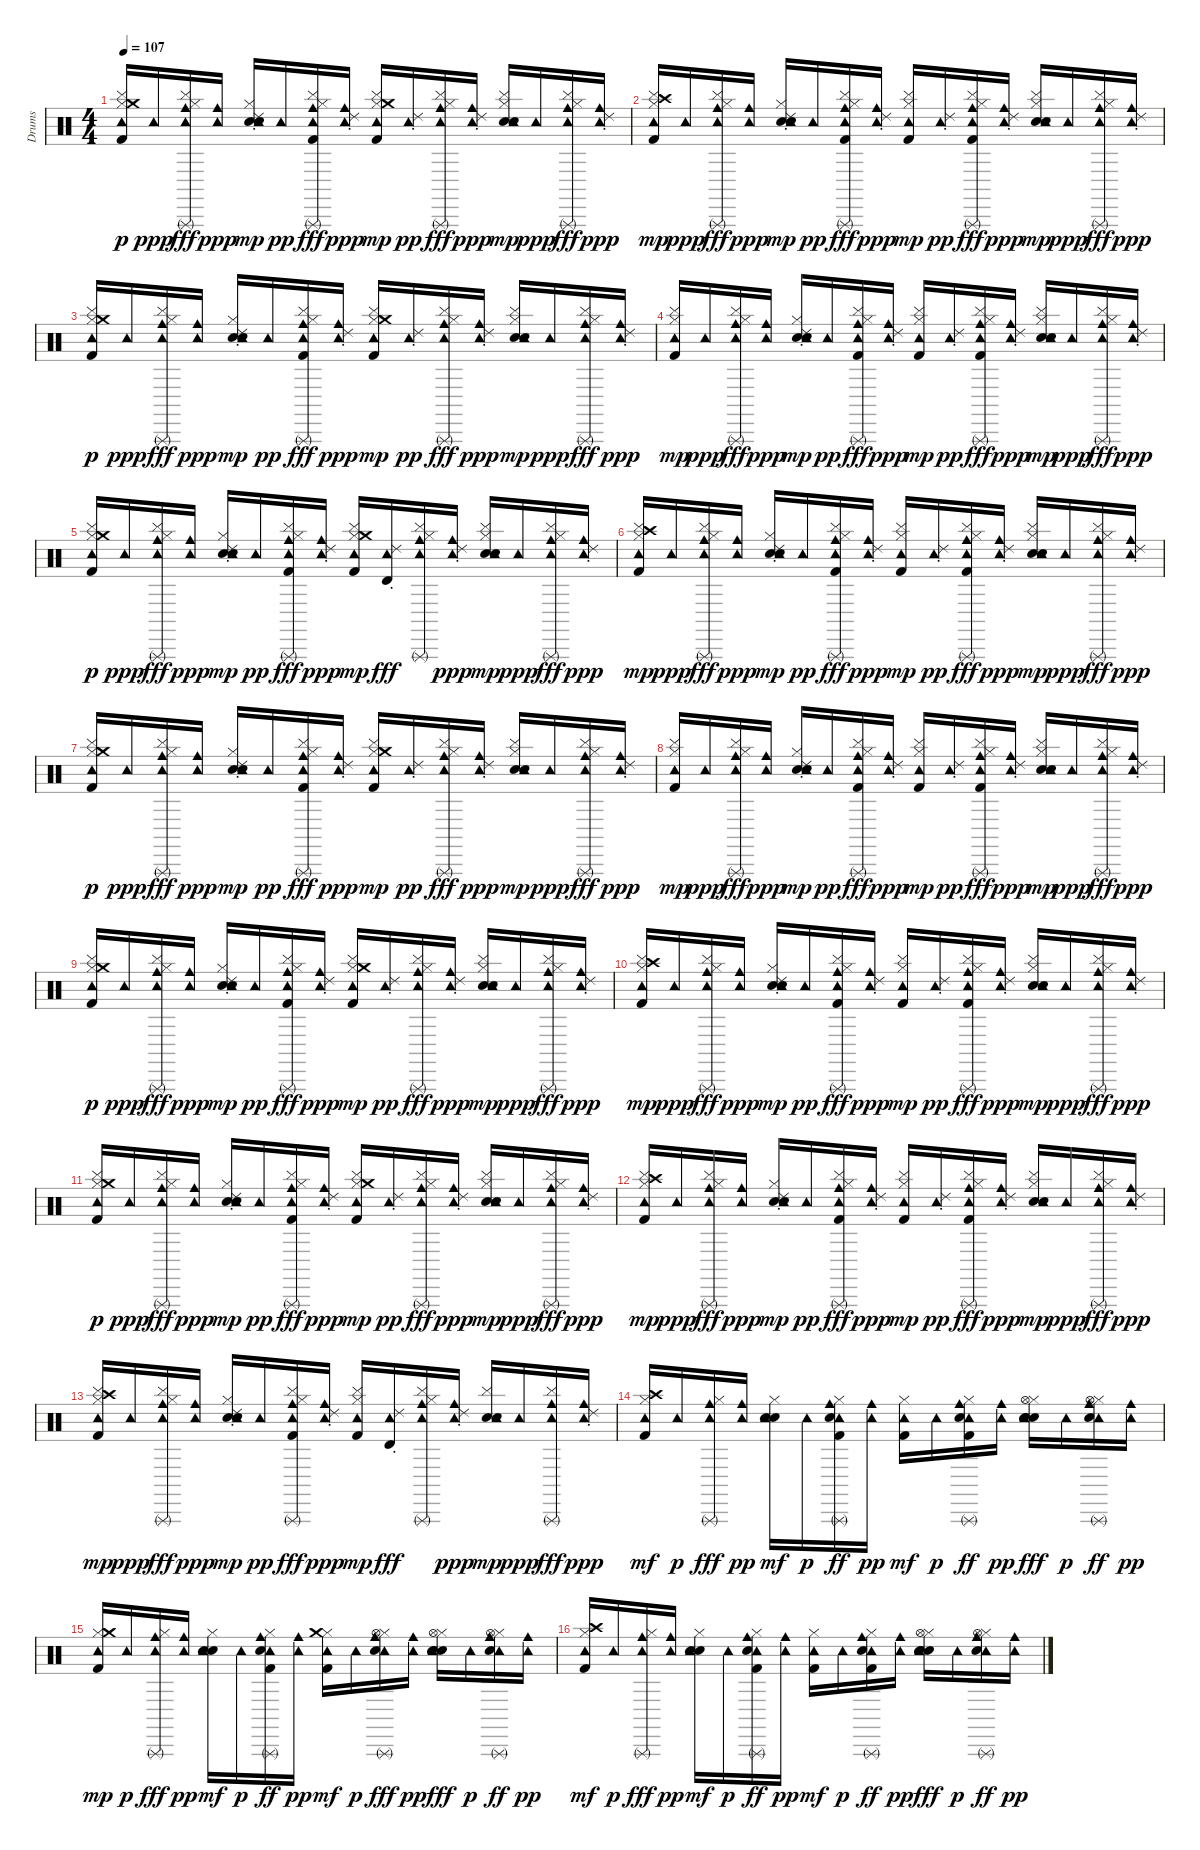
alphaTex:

\track ("Drums" "Drums") {instrument percussion}
\staff {score}
\articulation defaults
\ts (4 4)
\tempo 107
\clef neutral
\ks c
("Cymbal (hit)" "Kick (hit) 2" "Hi-Hat (closed)" "Tambourine (hit)" "Crash medium (hit)").16{dy p} "Tambourine (hit)".16{dy ppp} ("Cymbal (hit)" "Hi-Hat (closed)" "Tambourine (hit)" "Cowbell medium (hit)" "Triangle (rnute)").16{dy fff} ("Tambourine (hit)" "Cowbell medium (hit)").16{dy ppp} ("Ride (choke) 2" "Hand Clap (hit)" "Electric Snare (hit)" "Hi-Hat (closed)" "Tambourine (hit)").16{dy mp} "Tambourine (hit)".16{dy pp} ("Cymbal (hit)" "Kick (hit) 2" "Hi-Hat (closed)" "Tambourine (hit)" "Cowbell medium (hit)" "Triangle (rnute)").16{dy fff} ("Ride (choke) 2" "Tambourine (hit)" "Cowbell medium (hit)").16{dy ppp} ("Cymbal (hit)" "Kick (hit) 2" "Hi-Hat (closed)" "Tambourine (hit)" "Crash medium (hit)").16{dy mp} ("Ride (choke) 2" "Tambourine (hit)").16{dy pp} ("Cymbal (hit)" "Hi-Hat (closed)" "Tambourine (hit)" "Cowbell medium (hit)" "Triangle (rnute)").16{dy fff} ("Ride (choke) 2" "Tambourine (hit)" "Cowbell medium (hit)").16{dy ppp} ("Cymbal (hit)" "Hand Clap (hit)" "Electric Snare (hit)" "Hi-Hat (closed)" "Tambourine (hit)").16{dy mp} "Tambourine (hit)".16{dy ppp} ("Cymbal (hit)" "Hi-Hat (closed)" "Tambourine (hit)" "Cowbell medium (hit)" "Triangle (rnute)").16{dy fff} ("Ride (choke) 2" "Tambourine (hit)" "Cowbell medium (hit)").16{dy ppp} |
("Cymbal (hit)" "Kick (hit) 2" "Hi-Hat (closed)" "Crash high (hit)" "Tambourine (hit)").16{dy mp} "Tambourine (hit)".16{dy ppp} ("Cymbal (hit)" "Hi-Hat (closed)" "Tambourine (hit)" "Cowbell medium (hit)" "Triangle (rnute)").16{dy fff} ("Tambourine (hit)" "Cowbell medium (hit)").16{dy ppp} ("Ride (choke) 2" "Hand Clap (hit)" "Electric Snare (hit)" "Hi-Hat (closed)" "Tambourine (hit)").16{dy mp} "Tambourine (hit)".16{dy pp} ("Cymbal (hit)" "Kick (hit) 2" "Hi-Hat (closed)" "Tambourine (hit)" "Cowbell medium (hit)" "Triangle (rnute)").16{dy fff} ("Ride (choke) 2" "Tambourine (hit)" "Cowbell medium (hit)").16{dy ppp} ("Cymbal (hit)" "Kick (hit) 2" "Hi-Hat (closed)" "Tambourine (hit)").16{dy mp} ("Ride (choke) 2" "Tambourine (hit)").16{dy pp} ("Cymbal (hit)" "Kick (hit) 2" "Hi-Hat (closed)" "Tambourine (hit)" "Cowbell medium (hit)" "Triangle (rnute)").16{dy fff} ("Ride (choke) 2" "Tambourine (hit)" "Cowbell medium (hit)").16{dy ppp} ("Cymbal (hit)" "Hand Clap (hit)" "Electric Snare (hit)" "Hi-Hat (closed)" "Tambourine (hit)").16{dy mp} "Tambourine (hit)".16{dy ppp} ("Cymbal (hit)" "Hi-Hat (closed)" "Tambourine (hit)" "Cowbell medium (hit)" "Triangle (rnute)").16{dy fff} ("Ride (choke) 2" "Tambourine (hit)" "Cowbell medium (hit)").16{dy ppp} |
("Cymbal (hit)" "Kick (hit) 2" "Hi-Hat (closed)" "Tambourine (hit)" "Crash medium (hit)").16{dy p} "Tambourine (hit)".16{dy ppp} ("Cymbal (hit)" "Hi-Hat (closed)" "Tambourine (hit)" "Cowbell medium (hit)" "Triangle (rnute)").16{dy fff} ("Tambourine (hit)" "Cowbell medium (hit)").16{dy ppp} ("Ride (choke) 2" "Hand Clap (hit)" "Electric Snare (hit)" "Hi-Hat (closed)" "Tambourine (hit)").16{dy mp} "Tambourine (hit)".16{dy pp} ("Cymbal (hit)" "Kick (hit) 2" "Hi-Hat (closed)" "Tambourine (hit)" "Cowbell medium (hit)" "Triangle (rnute)").16{dy fff} ("Ride (choke) 2" "Tambourine (hit)" "Cowbell medium (hit)").16{dy ppp} ("Cymbal (hit)" "Kick (hit) 2" "Hi-Hat (closed)" "Tambourine (hit)" "Crash medium (hit)").16{dy mp} ("Ride (choke) 2" "Tambourine (hit)").16{dy pp} ("Cymbal (hit)" "Hi-Hat (closed)" "Tambourine (hit)" "Cowbell medium (hit)" "Triangle (rnute)").16{dy fff} ("Ride (choke) 2" "Tambourine (hit)" "Cowbell medium (hit)").16{dy ppp} ("Cymbal (hit)" "Hand Clap (hit)" "Electric Snare (hit)" "Hi-Hat (closed)" "Tambourine (hit)").16{dy mp} "Tambourine (hit)".16{dy ppp} ("Cymbal (hit)" "Hi-Hat (closed)" "Tambourine (hit)" "Cowbell medium (hit)" "Triangle (rnute)").16{dy fff} ("Ride (choke) 2" "Tambourine (hit)" "Cowbell medium (hit)").16{dy ppp} |
("Cymbal (hit)" "Kick (hit) 2" "Hi-Hat (closed)" "Tambourine (hit)").16{dy mp} "Tambourine (hit)".16{dy ppp} ("Cymbal (hit)" "Hi-Hat (closed)" "Tambourine (hit)" "Cowbell medium (hit)" "Triangle (rnute)").16{dy fff} ("Tambourine (hit)" "Cowbell medium (hit)").16{dy ppp} ("Ride (choke) 2" "Hand Clap (hit)" "Electric Snare (hit)" "Hi-Hat (closed)" "Tambourine (hit)").16{dy mp} "Tambourine (hit)".16{dy pp} ("Cymbal (hit)" "Kick (hit) 2" "Hi-Hat (closed)" "Tambourine (hit)" "Cowbell medium (hit)" "Triangle (rnute)").16{dy fff} ("Ride (choke) 2" "Tambourine (hit)" "Cowbell medium (hit)").16{dy ppp} ("Cymbal (hit)" "Kick (hit) 2" "Hi-Hat (closed)" "Tambourine (hit)").16{dy mp} ("Ride (choke) 2" "Tambourine (hit)").16{dy pp} ("Cymbal (hit)" "Kick (hit) 2" "Hi-Hat (closed)" "Tambourine (hit)" "Cowbell medium (hit)" "Triangle (rnute)").16{dy fff} ("Ride (choke) 2" "Tambourine (hit)" "Cowbell medium (hit)").16{dy ppp} ("Cymbal (hit)" "Hand Clap (hit)" "Electric Snare (hit)" "Hi-Hat (closed)" "Tambourine (hit)").16{dy mp} "Tambourine (hit)".16{dy ppp} ("Cymbal (hit)" "Hi-Hat (closed)" "Tambourine (hit)" "Cowbell medium (hit)" "Triangle (rnute)").16{dy fff} ("Ride (choke) 2" "Tambourine (hit)" "Cowbell medium (hit)").16{dy ppp} |
("Cymbal (hit)" "Kick (hit) 2" "Hi-Hat (closed)" "Tambourine (hit)" "Crash medium (hit)").16{dy p} "Tambourine (hit)".16{dy ppp} ("Cymbal (hit)" "Hi-Hat (closed)" "Tambourine (hit)" "Cowbell medium (hit)" "Triangle (rnute)").16{dy fff} ("Tambourine (hit)" "Cowbell medium (hit)").16{dy ppp} ("Ride (choke) 2" "Hand Clap (hit)" "Electric Snare (hit)" "Hi-Hat (closed)" "Tambourine (hit)").16{dy mp} "Tambourine (hit)".16{dy pp} ("Cymbal (hit)" "Kick (hit) 2" "Hi-Hat (closed)" "Tambourine (hit)" "Cowbell medium (hit)" "Triangle (rnute)").16{dy fff} ("Ride (choke) 2" "Tambourine (hit)" "Cowbell medium (hit)").16{dy ppp} ("Cymbal (hit)" "Kick (hit) 2" "Hi-Hat (closed)" "Tambourine (hit)" "Crash medium (hit)").16{dy mp} ("Ride (choke) 2" "Tambourine (hit)" "Timbale high (hit)").16{dy fff} ("Cymbal (hit)" "Hi-Hat (closed)" "Tambourine (hit)" "Cowbell medium (hit)" "Triangle (rnute)").16 ("Ride (choke) 2" "Tambourine (hit)" "Cowbell medium (hit)").16{dy ppp} ("Cymbal (hit)" "Hand Clap (hit)" "Electric Snare (hit)" "Hi-Hat (closed)" "Tambourine (hit)").16{dy mp} "Tambourine (hit)".16{dy ppp} ("Cymbal (hit)" "Hi-Hat (closed)" "Tambourine (hit)" "Cowbell medium (hit)" "Triangle (rnute)").16{dy fff} ("Ride (choke) 2" "Tambourine (hit)" "Cowbell medium (hit)").16{dy ppp} |
("Cymbal (hit)" "Kick (hit) 2" "Hi-Hat (closed)" "Crash high (hit)" "Tambourine (hit)").16{dy mp} "Tambourine (hit)".16{dy ppp} ("Cymbal (hit)" "Hi-Hat (closed)" "Tambourine (hit)" "Cowbell medium (hit)" "Triangle (rnute)").16{dy fff} ("Tambourine (hit)" "Cowbell medium (hit)").16{dy ppp} ("Ride (choke) 2" "Hand Clap (hit)" "Electric Snare (hit)" "Hi-Hat (closed)" "Tambourine (hit)").16{dy mp} "Tambourine (hit)".16{dy pp} ("Cymbal (hit)" "Kick (hit) 2" "Hi-Hat (closed)" "Tambourine (hit)" "Cowbell medium (hit)" "Triangle (rnute)").16{dy fff} ("Ride (choke) 2" "Tambourine (hit)" "Cowbell medium (hit)").16{dy ppp} ("Cymbal (hit)" "Kick (hit) 2" "Hi-Hat (closed)" "Tambourine (hit)").16{dy mp} ("Ride (choke) 2" "Tambourine (hit)").16{dy pp} ("Cymbal (hit)" "Kick (hit) 2" "Hi-Hat (closed)" "Tambourine (hit)" "Cowbell medium (hit)" "Triangle (rnute)").16{dy fff} ("Ride (choke) 2" "Tambourine (hit)" "Cowbell medium (hit)").16{dy ppp} ("Cymbal (hit)" "Hand Clap (hit)" "Electric Snare (hit)" "Hi-Hat (closed)" "Tambourine (hit)").16{dy mp} "Tambourine (hit)".16{dy ppp} ("Cymbal (hit)" "Hi-Hat (closed)" "Tambourine (hit)" "Cowbell medium (hit)" "Triangle (rnute)").16{dy fff} ("Ride (choke) 2" "Tambourine (hit)" "Cowbell medium (hit)").16{dy ppp} |
("Cymbal (hit)" "Kick (hit) 2" "Hi-Hat (closed)" "Tambourine (hit)" "Crash medium (hit)").16{dy p} "Tambourine (hit)".16{dy ppp} ("Cymbal (hit)" "Hi-Hat (closed)" "Tambourine (hit)" "Cowbell medium (hit)" "Triangle (rnute)").16{dy fff} ("Tambourine (hit)" "Cowbell medium (hit)").16{dy ppp} ("Ride (choke) 2" "Hand Clap (hit)" "Electric Snare (hit)" "Hi-Hat (closed)" "Tambourine (hit)").16{dy mp} "Tambourine (hit)".16{dy pp} ("Cymbal (hit)" "Kick (hit) 2" "Hi-Hat (closed)" "Tambourine (hit)" "Cowbell medium (hit)" "Triangle (rnute)").16{dy fff} ("Ride (choke) 2" "Tambourine (hit)" "Cowbell medium (hit)").16{dy ppp} ("Cymbal (hit)" "Kick (hit) 2" "Hi-Hat (closed)" "Tambourine (hit)" "Crash medium (hit)").16{dy mp} ("Ride (choke) 2" "Tambourine (hit)").16{dy pp} ("Cymbal (hit)" "Hi-Hat (closed)" "Tambourine (hit)" "Cowbell medium (hit)" "Triangle (rnute)").16{dy fff} ("Ride (choke) 2" "Tambourine (hit)" "Cowbell medium (hit)").16{dy ppp} ("Cymbal (hit)" "Hand Clap (hit)" "Electric Snare (hit)" "Hi-Hat (closed)" "Tambourine (hit)").16{dy mp} "Tambourine (hit)".16{dy ppp} ("Cymbal (hit)" "Hi-Hat (closed)" "Tambourine (hit)" "Cowbell medium (hit)" "Triangle (rnute)").16{dy fff} ("Ride (choke) 2" "Tambourine (hit)" "Cowbell medium (hit)").16{dy ppp} |
("Cymbal (hit)" "Kick (hit) 2" "Hi-Hat (closed)" "Tambourine (hit)").16{dy mp} "Tambourine (hit)".16{dy ppp} ("Cymbal (hit)" "Hi-Hat (closed)" "Tambourine (hit)" "Cowbell medium (hit)" "Triangle (rnute)").16{dy fff} ("Tambourine (hit)" "Cowbell medium (hit)").16{dy ppp} ("Ride (choke) 2" "Hand Clap (hit)" "Electric Snare (hit)" "Hi-Hat (closed)" "Tambourine (hit)").16{dy mp} "Tambourine (hit)".16{dy pp} ("Cymbal (hit)" "Kick (hit) 2" "Hi-Hat (closed)" "Tambourine (hit)" "Cowbell medium (hit)" "Triangle (rnute)").16{dy fff} ("Ride (choke) 2" "Tambourine (hit)" "Cowbell medium (hit)").16{dy ppp} ("Cymbal (hit)" "Kick (hit) 2" "Hi-Hat (closed)" "Tambourine (hit)").16{dy mp} ("Ride (choke) 2" "Tambourine (hit)").16{dy pp} ("Cymbal (hit)" "Kick (hit) 2" "Hi-Hat (closed)" "Tambourine (hit)" "Cowbell medium (hit)" "Triangle (rnute)").16{dy fff} ("Ride (choke) 2" "Tambourine (hit)" "Cowbell medium (hit)").16{dy ppp} ("Cymbal (hit)" "Hand Clap (hit)" "Electric Snare (hit)" "Hi-Hat (closed)" "Tambourine (hit)").16{dy mp} "Tambourine (hit)".16{dy ppp} ("Cymbal (hit)" "Hi-Hat (closed)" "Tambourine (hit)" "Cowbell medium (hit)" "Triangle (rnute)").16{dy fff} ("Ride (choke) 2" "Tambourine (hit)" "Cowbell medium (hit)").16{dy ppp} |
("Cymbal (hit)" "Kick (hit) 2" "Hi-Hat (closed)" "Tambourine (hit)" "Crash medium (hit)").16{dy p} "Tambourine (hit)".16{dy ppp} ("Cymbal (hit)" "Hi-Hat (closed)" "Tambourine (hit)" "Cowbell medium (hit)" "Triangle (rnute)").16{dy fff} ("Tambourine (hit)" "Cowbell medium (hit)").16{dy ppp} ("Ride (choke) 2" "Hand Clap (hit)" "Electric Snare (hit)" "Hi-Hat (closed)" "Tambourine (hit)").16{dy mp} "Tambourine (hit)".16{dy pp} ("Cymbal (hit)" "Kick (hit) 2" "Hi-Hat (closed)" "Tambourine (hit)" "Cowbell medium (hit)" "Triangle (rnute)").16{dy fff} ("Ride (choke) 2" "Tambourine (hit)" "Cowbell medium (hit)").16{dy ppp} ("Cymbal (hit)" "Kick (hit) 2" "Hi-Hat (closed)" "Tambourine (hit)" "Crash medium (hit)").16{dy mp} ("Ride (choke) 2" "Tambourine (hit)").16{dy pp} ("Cymbal (hit)" "Hi-Hat (closed)" "Tambourine (hit)" "Cowbell medium (hit)" "Triangle (rnute)").16{dy fff} ("Ride (choke) 2" "Tambourine (hit)" "Cowbell medium (hit)").16{dy ppp} ("Cymbal (hit)" "Hand Clap (hit)" "Electric Snare (hit)" "Hi-Hat (closed)" "Tambourine (hit)").16{dy mp} "Tambourine (hit)".16{dy ppp} ("Cymbal (hit)" "Hi-Hat (closed)" "Tambourine (hit)" "Cowbell medium (hit)" "Triangle (rnute)").16{dy fff} ("Ride (choke) 2" "Tambourine (hit)" "Cowbell medium (hit)").16{dy ppp} |
("Cymbal (hit)" "Kick (hit) 2" "Hi-Hat (closed)" "Crash high (hit)" "Tambourine (hit)").16{dy mp} "Tambourine (hit)".16{dy ppp} ("Cymbal (hit)" "Hi-Hat (closed)" "Tambourine (hit)" "Cowbell medium (hit)" "Triangle (rnute)").16{dy fff} ("Tambourine (hit)" "Cowbell medium (hit)").16{dy ppp} ("Ride (choke) 2" "Hand Clap (hit)" "Electric Snare (hit)" "Hi-Hat (closed)" "Tambourine (hit)").16{dy mp} "Tambourine (hit)".16{dy pp} ("Cymbal (hit)" "Kick (hit) 2" "Hi-Hat (closed)" "Tambourine (hit)" "Cowbell medium (hit)" "Triangle (rnute)").16{dy fff} ("Ride (choke) 2" "Tambourine (hit)" "Cowbell medium (hit)").16{dy ppp} ("Cymbal (hit)" "Kick (hit) 2" "Hi-Hat (closed)" "Tambourine (hit)").16{dy mp} ("Ride (choke) 2" "Tambourine (hit)").16{dy pp} ("Cymbal (hit)" "Kick (hit) 2" "Hi-Hat (closed)" "Tambourine (hit)" "Cowbell medium (hit)" "Triangle (rnute)").16{dy fff} ("Ride (choke) 2" "Tambourine (hit)" "Cowbell medium (hit)").16{dy ppp} ("Cymbal (hit)" "Hand Clap (hit)" "Electric Snare (hit)" "Hi-Hat (closed)" "Tambourine (hit)").16{dy mp} "Tambourine (hit)".16{dy ppp} ("Cymbal (hit)" "Hi-Hat (closed)" "Tambourine (hit)" "Cowbell medium (hit)" "Triangle (rnute)").16{dy fff} ("Ride (choke) 2" "Tambourine (hit)" "Cowbell medium (hit)").16{dy ppp} |
("Cymbal (hit)" "Kick (hit) 2" "Hi-Hat (closed)" "Tambourine (hit)" "Crash medium (hit)").16{dy p} "Tambourine (hit)".16{dy ppp} ("Cymbal (hit)" "Hi-Hat (closed)" "Tambourine (hit)" "Cowbell medium (hit)" "Triangle (rnute)").16{dy fff} ("Tambourine (hit)" "Cowbell medium (hit)").16{dy ppp} ("Ride (choke) 2" "Hand Clap (hit)" "Electric Snare (hit)" "Hi-Hat (closed)" "Tambourine (hit)").16{dy mp} "Tambourine (hit)".16{dy pp} ("Cymbal (hit)" "Kick (hit) 2" "Hi-Hat (closed)" "Tambourine (hit)" "Cowbell medium (hit)" "Triangle (rnute)").16{dy fff} ("Ride (choke) 2" "Tambourine (hit)" "Cowbell medium (hit)").16{dy ppp} ("Cymbal (hit)" "Kick (hit) 2" "Hi-Hat (closed)" "Tambourine (hit)" "Crash medium (hit)").16{dy mp} ("Ride (choke) 2" "Tambourine (hit)").16{dy pp} ("Cymbal (hit)" "Hi-Hat (closed)" "Tambourine (hit)" "Cowbell medium (hit)" "Triangle (rnute)").16{dy fff} ("Ride (choke) 2" "Tambourine (hit)" "Cowbell medium (hit)").16{dy ppp} ("Cymbal (hit)" "Hand Clap (hit)" "Electric Snare (hit)" "Hi-Hat (closed)" "Tambourine (hit)").16{dy mp} "Tambourine (hit)".16{dy ppp} ("Cymbal (hit)" "Hi-Hat (closed)" "Tambourine (hit)" "Cowbell medium (hit)" "Triangle (rnute)").16{dy fff} ("Ride (choke) 2" "Tambourine (hit)" "Cowbell medium (hit)").16{dy ppp} |
("Cymbal (hit)" "Kick (hit) 2" "Hi-Hat (closed)" "Crash high (hit)" "Tambourine (hit)").16{dy mp} "Tambourine (hit)".16{dy ppp} ("Cymbal (hit)" "Hi-Hat (closed)" "Tambourine (hit)" "Cowbell medium (hit)" "Triangle (rnute)").16{dy fff} ("Tambourine (hit)" "Cowbell medium (hit)").16{dy ppp} ("Ride (choke) 2" "Hand Clap (hit)" "Electric Snare (hit)" "Hi-Hat (closed)" "Tambourine (hit)").16{dy mp} "Tambourine (hit)".16{dy pp} ("Cymbal (hit)" "Kick (hit) 2" "Hi-Hat (closed)" "Tambourine (hit)" "Cowbell medium (hit)" "Triangle (rnute)").16{dy fff} ("Ride (choke) 2" "Tambourine (hit)" "Cowbell medium (hit)").16{dy ppp} ("Cymbal (hit)" "Kick (hit) 2" "Hi-Hat (closed)" "Tambourine (hit)").16{dy mp} ("Ride (choke) 2" "Tambourine (hit)").16{dy pp} ("Cymbal (hit)" "Kick (hit) 2" "Hi-Hat (closed)" "Tambourine (hit)" "Cowbell medium (hit)" "Triangle (rnute)").16{dy fff} ("Ride (choke) 2" "Tambourine (hit)" "Cowbell medium (hit)").16{dy ppp} ("Cymbal (hit)" "Hand Clap (hit)" "Electric Snare (hit)" "Hi-Hat (closed)" "Tambourine (hit)").16{dy mp} "Tambourine (hit)".16{dy ppp} ("Cymbal (hit)" "Hi-Hat (closed)" "Tambourine (hit)" "Cowbell medium (hit)" "Triangle (rnute)").16{dy fff} ("Ride (choke) 2" "Tambourine (hit)" "Cowbell medium (hit)").16{dy ppp} |
("Cymbal (hit)" "Kick (hit) 2" "Hi-Hat (closed)" "Crash high (hit)" "Tambourine (hit)").16{dy mp} "Tambourine (hit)".16{dy ppp} ("Cymbal (hit)" "Hi-Hat (closed)" "Tambourine (hit)" "Cowbell medium (hit)" "Triangle (rnute)").16{dy fff} ("Tambourine (hit)" "Cowbell medium (hit)").16{dy ppp} ("Ride (choke) 2" "Hand Clap (hit)" "Electric Snare (hit)" "Hi-Hat (closed)" "Tambourine (hit)").16{dy mp} "Tambourine (hit)".16{dy pp} ("Cymbal (hit)" "Kick (hit) 2" "Hi-Hat (closed)" "Tambourine (hit)" "Cowbell medium (hit)" "Triangle (rnute)").16{dy fff} ("Ride (choke) 2" "Tambourine (hit)" "Cowbell medium (hit)").16{dy ppp} ("Cymbal (hit)" "Kick (hit) 2" "Hi-Hat (closed)" "Tambourine (hit)").16{dy mp} ("Ride (choke) 2" "Tambourine (hit)" "Timbale high (hit)").16{dy fff} ("Cymbal (hit)" "Hi-Hat (closed)" "Tambourine (hit)" "Cowbell medium (hit)" "Triangle (rnute)").16 ("Ride (choke) 2" "Tambourine (hit)" "Cowbell medium (hit)").16{dy ppp} ("Cymbal (hit)" "Hand Clap (hit)" "Electric Snare (hit)" "Tambourine (hit)").16{dy mp} "Tambourine (hit)".16{dy ppp} ("Cymbal (hit)" "Tambourine (hit)" "Cowbell medium (hit)" "Triangle (rnute)").16{dy fff} ("Ride (choke) 2" "Tambourine (hit)" "Cowbell medium (hit)").16{dy ppp} |
("Kick (hit) 2" "Hi-Hat (closed)" "Crash high (hit)" "Tambourine (hit)").16{dy mf} "Tambourine (hit)".16{dy p} ("Hi-Hat (closed)" "Tambourine (hit)" "Cowbell medium (hit)" "Triangle (rnute)").16{dy fff} ("Tambourine (hit)" "Cowbell medium (hit)").16{dy pp} ("Hand Clap (hit)" "Electric Snare (hit)" "Hi-Hat (closed)" "Tambourine (hit)").16{dy mf} "Tambourine (hit)".16{dy p} ("Kick (hit) 2" "Hi-Hat (closed)" "Tambourine (hit)" "Cowbell medium (hit)" "Triangle (rnute)" "Metronome (bell)").16{dy ff} ("Tambourine (hit)" "Cowbell medium (hit)").16{dy pp} ("Kick (hit) 2" "Hi-Hat (closed)" "Tambourine (hit)").16{dy mf} "Tambourine (hit)".16{dy p} ("Kick (hit) 2" "Hi-Hat (closed)" "Tambourine (hit)" "Cowbell medium (hit)" "Triangle (rnute)" "Metronome (bell)").16{dy ff} ("Tambourine (hit)" "Cowbell medium (hit)").16{dy pp} ("Hand Clap (hit)" "Electric Snare (hit)" "Hi-Hat (closed)" "Tambourine (hit)" "Metronome (bell)" "Hi-Hat (open)").16{dy fff} "Tambourine (hit)".16{dy p} ("Hi-Hat (closed)" "Tambourine (hit)" "Cowbell medium (hit)" "Triangle (rnute)" "Metronome (bell)" "Hi-Hat (open)").16{dy ff} ("Tambourine (hit)" "Cowbell medium (hit)").16{dy pp} |
("Kick (hit) 2" "Hi-Hat (closed)" "Tambourine (hit)" "Crash medium (hit)").16{dy mp} "Tambourine (hit)".16{dy p} ("Hi-Hat (closed)" "Tambourine (hit)" "Cowbell medium (hit)" "Triangle (rnute)").16{dy fff} ("Tambourine (hit)" "Cowbell medium (hit)").16{dy pp} ("Hand Clap (hit)" "Electric Snare (hit)" "Hi-Hat (closed)" "Tambourine (hit)").16{dy mf} "Tambourine (hit)".16{dy p} ("Kick (hit) 2" "Hi-Hat (closed)" "Tambourine (hit)" "Cowbell medium (hit)" "Triangle (rnute)" "Metronome (bell)").16{dy ff} ("Tambourine (hit)" "Cowbell medium (hit)").16{dy pp} ("Kick (hit) 2" "Hi-Hat (closed)" "Tambourine (hit)" "Crash medium (hit)").16{dy mf} "Tambourine (hit)".16{dy p} ("Hi-Hat (closed)" "Tambourine (hit)" "Cowbell medium (hit)" "Triangle (rnute)" "Metronome (bell)" "Hi-Hat (open)").16{dy fff} ("Tambourine (hit)" "Cowbell medium (hit)").16{dy pp} ("Hand Clap (hit)" "Electric Snare (hit)" "Hi-Hat (closed)" "Tambourine (hit)" "Metronome (bell)" "Hi-Hat (open)").16{dy fff} "Tambourine (hit)".16{dy p} ("Hi-Hat (closed)" "Tambourine (hit)" "Cowbell medium (hit)" "Triangle (rnute)" "Metronome (bell)" "Hi-Hat (open)").16{dy ff} ("Tambourine (hit)" "Cowbell medium (hit)").16{dy pp} |
("Kick (hit) 2" "Hi-Hat (closed)" "Crash high (hit)" "Tambourine (hit)").16{dy mf} "Tambourine (hit)".16{dy p} ("Hi-Hat (closed)" "Tambourine (hit)" "Cowbell medium (hit)" "Triangle (rnute)").16{dy fff} ("Tambourine (hit)" "Cowbell medium (hit)").16{dy pp} ("Hand Clap (hit)" "Electric Snare (hit)" "Hi-Hat (closed)" "Tambourine (hit)").16{dy mf} "Tambourine (hit)".16{dy p} ("Kick (hit) 2" "Hi-Hat (closed)" "Tambourine (hit)" "Cowbell medium (hit)" "Triangle (rnute)" "Metronome (bell)").16{dy ff} ("Tambourine (hit)" "Cowbell medium (hit)").16{dy pp} ("Kick (hit) 2" "Hi-Hat (closed)" "Tambourine (hit)").16{dy mf} "Tambourine (hit)".16{dy p} ("Kick (hit) 2" "Hi-Hat (closed)" "Tambourine (hit)" "Cowbell medium (hit)" "Triangle (rnute)" "Metronome (bell)").16{dy ff} ("Tambourine (hit)" "Cowbell medium (hit)").16{dy pp} ("Hand Clap (hit)" "Electric Snare (hit)" "Hi-Hat (closed)" "Tambourine (hit)" "Metronome (bell)" "Hi-Hat (open)").16{dy fff} "Tambourine (hit)".16{dy p} ("Hi-Hat (closed)" "Tambourine (hit)" "Cowbell medium (hit)" "Triangle (rnute)" "Metronome (bell)" "Hi-Hat (open)").16{dy ff} ("Tambourine (hit)" "Cowbell medium (hit)").16{dy pp}
